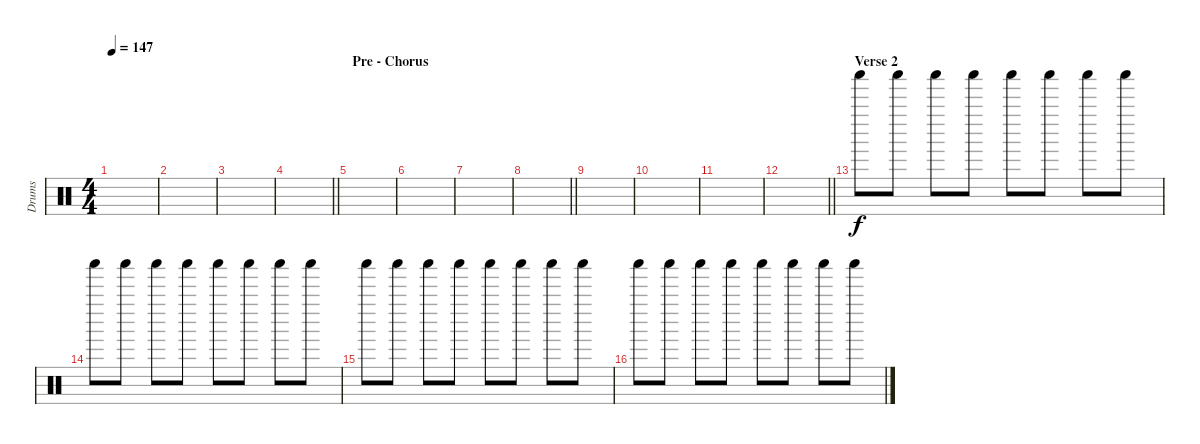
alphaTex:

\track ("Drums" "Drums") {instrument percussion}
\staff {score}
\articulation defaults
\ts (4 4)
\tempo 147
\clef neutral
\ks c
|
|
|
\barLineRight lightlight
|
\section ("" "Pre - Chorus")
|
|
|
\barLineRight lightlight
|
|
|
|
\barLineRight lightlight
|
\section ("" "Verse 2")
"Shaker (hit)".8 "Shaker (hit)".8 "Shaker (hit)".8 "Shaker (hit)".8 "Shaker (hit)".8 "Shaker (hit)".8 "Shaker (hit)".8 "Shaker (hit)".8 |
"Shaker (hit)".8 "Shaker (hit)".8 "Shaker (hit)".8 "Shaker (hit)".8 "Shaker (hit)".8 "Shaker (hit)".8 "Shaker (hit)".8 "Shaker (hit)".8 |
"Shaker (hit)".8 "Shaker (hit)".8 "Shaker (hit)".8 "Shaker (hit)".8 "Shaker (hit)".8 "Shaker (hit)".8 "Shaker (hit)".8 "Shaker (hit)".8 |
"Shaker (hit)".8 "Shaker (hit)".8 "Shaker (hit)".8 "Shaker (hit)".8 "Shaker (hit)".8 "Shaker (hit)".8 "Shaker (hit)".8 "Shaker (hit)".8
